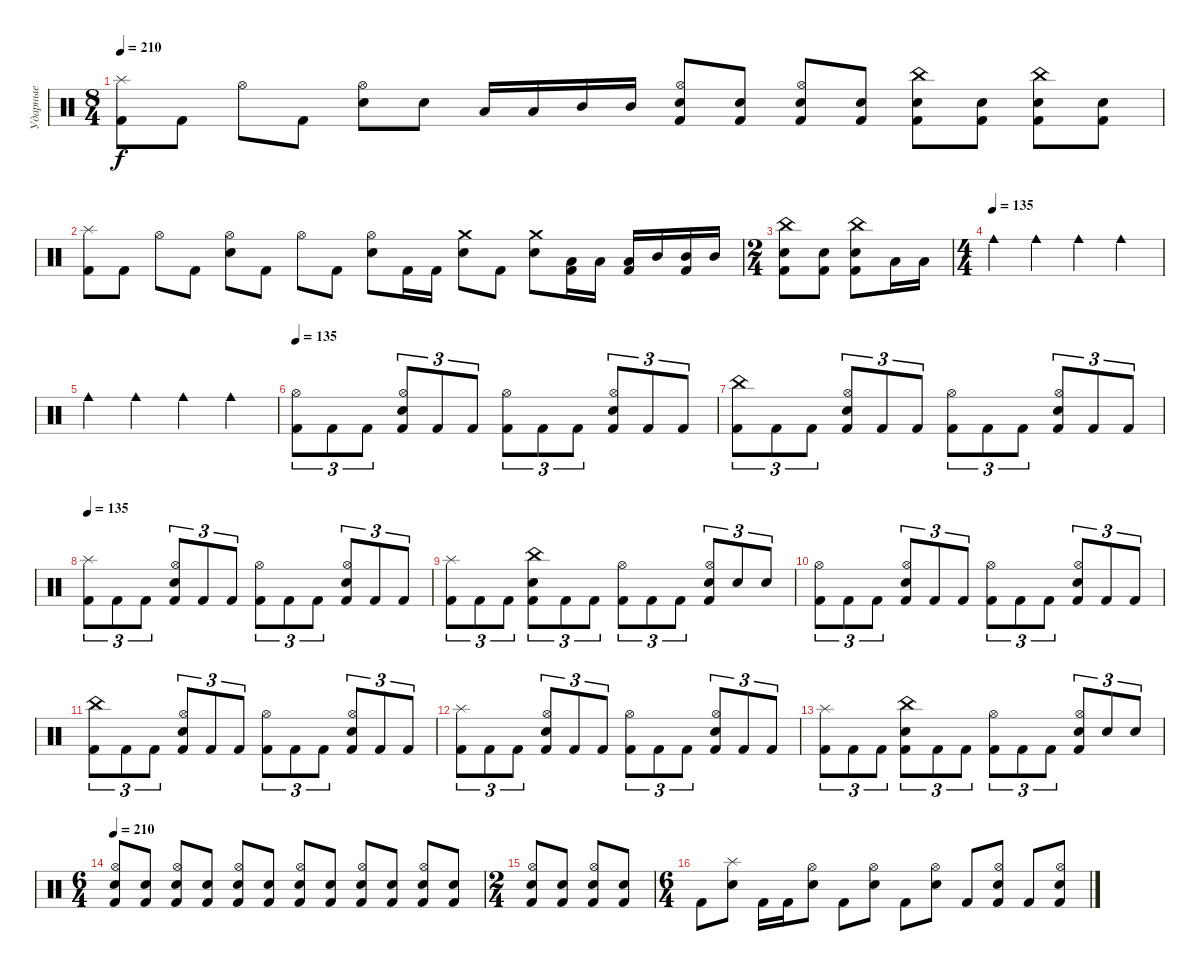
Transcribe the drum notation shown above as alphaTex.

\track ("Ударные" "Ударные") {mute instrument percussion}
\staff {score}
\articulation defaults
\ts (8 4)
\tempo 210
\clef neutral
\ks c
("Kick (hit) 2" "Splash (hit)").8{dy f} "Kick (hit) 2".8 "Hi-Hat (open)".8 "Kick (hit) 2".8 ("Electric Snare (hit)" "Hi-Hat (open)").8 "Electric Snare (hit)".8 "Low Tom (hit)".16 "Low Tom (hit)".16 "Mid Tom (hit)".16 "Mid Tom (hit)".16 ("Kick (hit) 2" "Electric Snare (hit)" "Hi-Hat (open)").8 ("Kick (hit) 2" "Electric Snare (hit)").8 ("Kick (hit) 2" "Electric Snare (hit)" "Hi-Hat (open)").8 ("Kick (hit) 2" "Electric Snare (hit)").8 ("Kick (hit) 2" "Electric Snare (hit)" "China (hit)").8 ("Kick (hit) 2" "Electric Snare (hit)").8 ("Kick (hit) 2" "Electric Snare (hit)" "China (hit)").8 ("Kick (hit) 2" "Electric Snare (hit)").8 |
("Kick (hit) 2" "Splash (hit)").8 "Kick (hit) 2".8 "Hi-Hat (open)".8 "Kick (hit) 2".8 ("Electric Snare (hit)" "Hi-Hat (open)").8 "Kick (hit) 2".8 "Hi-Hat (open)".8 "Kick (hit) 2".8 ("Electric Snare (hit)" "Hi-Hat (open)").8 "Kick (hit) 2".16 "Kick (hit) 2".16 ("Electric Snare (hit)" "Crash medium (hit)").8 "Kick (hit) 2".8 ("Electric Snare (hit)" "Crash medium (hit)").8 ("Low Tom (hit)" "Kick (hit) 2").16 "Low Tom (hit)".16 ("Low Tom (hit)" "Kick (hit) 2").16 "Mid Tom (hit)".16 ("Mid Tom (hit)" "Kick (hit) 2").16 "Mid Tom (hit)".16 |
\ts (2 4)
("Kick (hit) 2" "Electric Snare (hit)" "China (hit)").8 ("Kick (hit) 2" "Electric Snare (hit)").8 ("Kick (hit) 2" "Electric Snare (hit)" "China (hit)").8 "Low Tom (hit)".16 "Low Tom (hit)".16 |
\ts (4 4)
\tempo (135)
"Cowbell medium (hit)".4 "Cowbell medium (hit)".4 "Cowbell medium (hit)".4 "Cowbell medium (hit)".4 |
"Cowbell medium (hit)".4 "Cowbell medium (hit)".4 "Cowbell medium (hit)".4 "Cowbell medium (hit)".4 |
\tempo 135
("Kick (hit) 2" "Hi-Hat (open)").8{tu (3 2)} "Kick (hit) 2".8{tu (3 2)} "Kick (hit) 2".8{tu (3 2)} ("Kick (hit) 2" "Electric Snare (hit)" "Hi-Hat (open)").8{tu (3 2)} "Kick (hit) 2".8{tu (3 2)} "Kick (hit) 2".8{tu (3 2)} ("Kick (hit) 2" "Hi-Hat (open)").8{tu (3 2)} "Kick (hit) 2".8{tu (3 2)} "Kick (hit) 2".8{tu (3 2)} ("Kick (hit) 2" "Electric Snare (hit)" "Hi-Hat (open)").8{tu (3 2)} "Kick (hit) 2".8{tu (3 2)} "Kick (hit) 2".8{tu (3 2)} |
("Kick (hit) 2" "China (hit)").8{tu (3 2)} "Kick (hit) 2".8{tu (3 2)} "Kick (hit) 2".8{tu (3 2)} ("Kick (hit) 2" "Electric Snare (hit)" "Hi-Hat (open)").8{tu (3 2)} "Kick (hit) 2".8{tu (3 2)} "Kick (hit) 2".8{tu (3 2)} ("Kick (hit) 2" "Hi-Hat (open)").8{tu (3 2)} "Kick (hit) 2".8{tu (3 2)} "Kick (hit) 2".8{tu (3 2)} ("Kick (hit) 2" "Electric Snare (hit)" "Hi-Hat (open)").8{tu (3 2)} "Kick (hit) 2".8{tu (3 2)} "Kick (hit) 2".8{tu (3 2)} |
\tempo 135
("Kick (hit) 2" "Splash (hit)").8{tu (3 2)} "Kick (hit) 2".8{tu (3 2)} "Kick (hit) 2".8{tu (3 2)} ("Kick (hit) 2" "Electric Snare (hit)" "Hi-Hat (open)").8{tu (3 2)} "Kick (hit) 2".8{tu (3 2)} "Kick (hit) 2".8{tu (3 2)} ("Kick (hit) 2" "Hi-Hat (open)").8{tu (3 2)} "Kick (hit) 2".8{tu (3 2)} "Kick (hit) 2".8{tu (3 2)} ("Kick (hit) 2" "Electric Snare (hit)" "Hi-Hat (open)").8{tu (3 2)} "Kick (hit) 2".8{tu (3 2)} "Kick (hit) 2".8{tu (3 2)} |
("Kick (hit) 2" "Splash (hit)").8{tu (3 2)} "Kick (hit) 2".8{tu (3 2)} "Kick (hit) 2".8{tu (3 2)} ("Kick (hit) 2" "Electric Snare (hit)" "China (hit)").8{tu (3 2)} "Kick (hit) 2".8{tu (3 2)} "Kick (hit) 2".8{tu (3 2)} ("Kick (hit) 2" "Hi-Hat (open)").8{tu (3 2)} "Kick (hit) 2".8{tu (3 2)} "Kick (hit) 2".8{tu (3 2)} ("Kick (hit) 2" "Electric Snare (hit)" "Hi-Hat (open)").8{tu (3 2)} "Electric Snare (hit)".8{tu (3 2)} "Electric Snare (hit)".8{tu (3 2)} |
("Kick (hit) 2" "Hi-Hat (open)").8{tu (3 2)} "Kick (hit) 2".8{tu (3 2)} "Kick (hit) 2".8{tu (3 2)} ("Kick (hit) 2" "Electric Snare (hit)" "Hi-Hat (open)").8{tu (3 2)} "Kick (hit) 2".8{tu (3 2)} "Kick (hit) 2".8{tu (3 2)} ("Kick (hit) 2" "Hi-Hat (open)").8{tu (3 2)} "Kick (hit) 2".8{tu (3 2)} "Kick (hit) 2".8{tu (3 2)} ("Kick (hit) 2" "Electric Snare (hit)" "Hi-Hat (open)").8{tu (3 2)} "Kick (hit) 2".8{tu (3 2)} "Kick (hit) 2".8{tu (3 2)} |
("Kick (hit) 2" "China (hit)").8{tu (3 2)} "Kick (hit) 2".8{tu (3 2)} "Kick (hit) 2".8{tu (3 2)} ("Kick (hit) 2" "Electric Snare (hit)" "Hi-Hat (open)").8{tu (3 2)} "Kick (hit) 2".8{tu (3 2)} "Kick (hit) 2".8{tu (3 2)} ("Kick (hit) 2" "Hi-Hat (open)").8{tu (3 2)} "Kick (hit) 2".8{tu (3 2)} "Kick (hit) 2".8{tu (3 2)} ("Kick (hit) 2" "Electric Snare (hit)" "Hi-Hat (open)").8{tu (3 2)} "Kick (hit) 2".8{tu (3 2)} "Kick (hit) 2".8{tu (3 2)} |
("Kick (hit) 2" "Splash (hit)").8{tu (3 2)} "Kick (hit) 2".8{tu (3 2)} "Kick (hit) 2".8{tu (3 2)} ("Kick (hit) 2" "Electric Snare (hit)" "Hi-Hat (open)").8{tu (3 2)} "Kick (hit) 2".8{tu (3 2)} "Kick (hit) 2".8{tu (3 2)} ("Kick (hit) 2" "Hi-Hat (open)").8{tu (3 2)} "Kick (hit) 2".8{tu (3 2)} "Kick (hit) 2".8{tu (3 2)} ("Kick (hit) 2" "Electric Snare (hit)" "Hi-Hat (open)").8{tu (3 2)} "Kick (hit) 2".8{tu (3 2)} "Kick (hit) 2".8{tu (3 2)} |
("Kick (hit) 2" "Splash (hit)").8{tu (3 2)} "Kick (hit) 2".8{tu (3 2)} "Kick (hit) 2".8{tu (3 2)} ("Kick (hit) 2" "Electric Snare (hit)" "China (hit)").8{tu (3 2)} "Kick (hit) 2".8{tu (3 2)} "Kick (hit) 2".8{tu (3 2)} ("Kick (hit) 2" "Hi-Hat (open)").8{tu (3 2)} "Kick (hit) 2".8{tu (3 2)} "Kick (hit) 2".8{tu (3 2)} ("Kick (hit) 2" "Electric Snare (hit)" "Hi-Hat (open)").8{tu (3 2)} "Electric Snare (hit)".8{tu (3 2)} "Electric Snare (hit)".8{tu (3 2)} |
\ts (6 4)
\tempo 210
("Kick (hit) 2" "Electric Snare (hit)" "Hi-Hat (open)").8 ("Kick (hit) 2" "Electric Snare (hit)").8 ("Kick (hit) 2" "Electric Snare (hit)" "Hi-Hat (open)").8 ("Kick (hit) 2" "Electric Snare (hit)").8 ("Kick (hit) 2" "Electric Snare (hit)" "Hi-Hat (open)").8 ("Kick (hit) 2" "Electric Snare (hit)").8 ("Kick (hit) 2" "Electric Snare (hit)" "Hi-Hat (open)").8 ("Kick (hit) 2" "Electric Snare (hit)").8 ("Kick (hit) 2" "Electric Snare (hit)" "Hi-Hat (open)").8 ("Kick (hit) 2" "Electric Snare (hit)").8 ("Kick (hit) 2" "Electric Snare (hit)" "Hi-Hat (open)").8 ("Kick (hit) 2" "Electric Snare (hit)").8 |
\ts (2 4)
("Kick (hit) 2" "Electric Snare (hit)" "Hi-Hat (open)").8 ("Kick (hit) 2" "Electric Snare (hit)").8 ("Kick (hit) 2" "Electric Snare (hit)" "Hi-Hat (open)").8 ("Electric Snare (hit)" "Kick (hit) 2").8 |
\ts (6 4)
"Kick (hit) 2".8 ("Electric Snare (hit)" "Splash (hit)").8 "Kick (hit) 2".16 "Kick (hit) 2".16 ("Electric Snare (hit)" "Hi-Hat (open)").8 "Kick (hit) 2".8 ("Electric Snare (hit)" "Hi-Hat (open)").8 "Kick (hit) 2".8 ("Electric Snare (hit)" "Hi-Hat (open)").8 "Kick (hit) 2".8 ("Kick (hit) 2" "Electric Snare (hit)" "Hi-Hat (open)").8 "Kick (hit) 2".8 ("Kick (hit) 2" "Electric Snare (hit)" "Hi-Hat (open)").8
